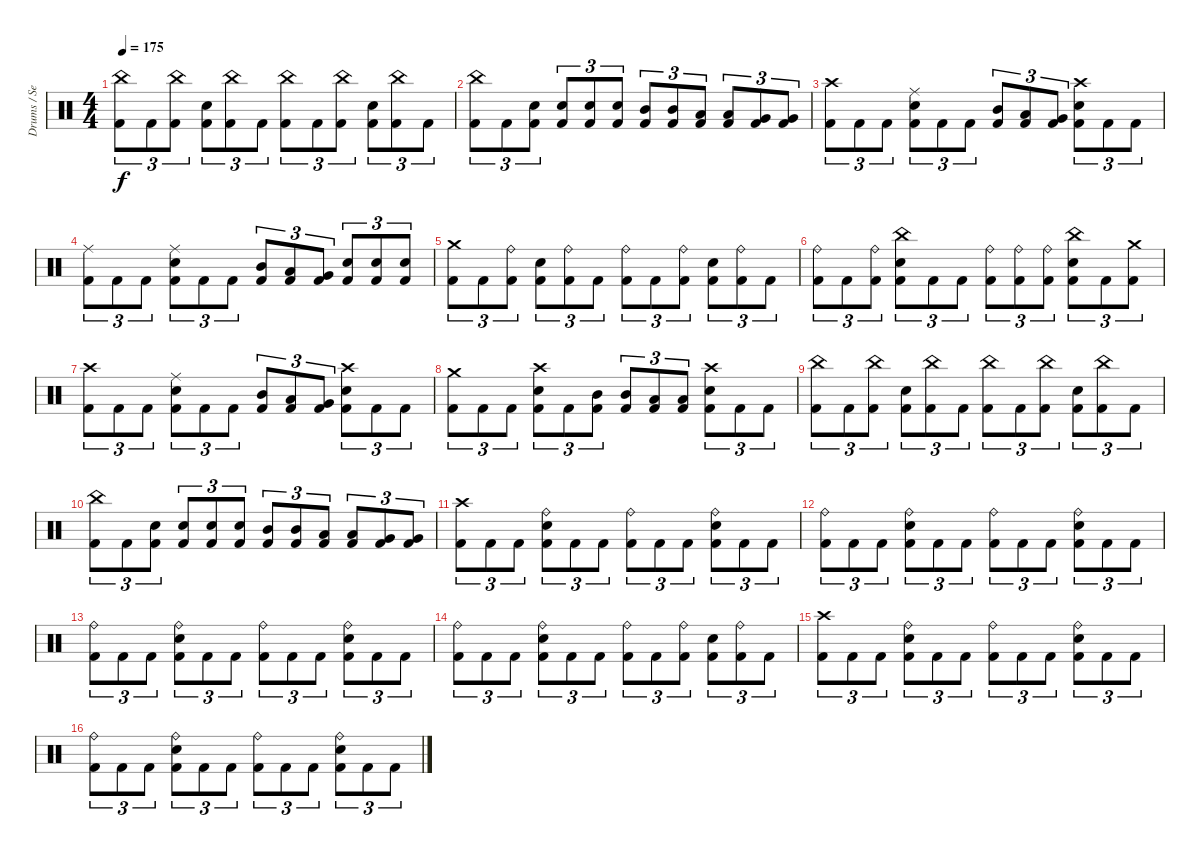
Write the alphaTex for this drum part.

\track ("Drums / Sean" "Drums / Se") {instrument percussion}
\staff {score}
\articulation defaults
\ts (4 4)
\tempo 175
\clef neutral
\ks c
("China (hit)" "Kick (hit) 2").8{tu (3 2) dy f} "Kick (hit) 2".8{tu (3 2)} ("China (hit)" "Kick (hit) 2").8{tu (3 2)} ("Electric Snare (hit)" "Kick (hit) 2").8{tu (3 2)} ("China (hit)" "Kick (hit) 2").8{tu (3 2)} "Kick (hit) 2".8{tu (3 2)} ("China (hit)" "Kick (hit) 2").8{tu (3 2)} "Kick (hit) 2".8{tu (3 2)} ("China (hit)" "Kick (hit) 2").8{tu (3 2)} ("Electric Snare (hit)" "Kick (hit) 2").8{tu (3 2)} ("China (hit)" "Kick (hit) 2").8{tu (3 2)} "Kick (hit) 2".8{tu (3 2)} |
("China (hit)" "Kick (hit) 2").8{tu (3 2)} "Kick (hit) 2".8{tu (3 2)} ("Electric Snare (hit)" "Kick (hit) 2").8{tu (3 2)} ("Electric Snare (hit)" "Kick (hit) 2").8{tu (3 2)} ("Electric Snare (hit)" "Kick (hit) 2").8{tu (3 2)} ("Electric Snare (hit)" "Kick (hit) 2").8{tu (3 2)} ("Mid Tom (hit)" "Kick (hit) 2").8{tu (3 2)} ("Mid Tom (hit)" "Kick (hit) 2").8{tu (3 2)} ("Low Tom (hit)" "Kick (hit) 2").8{tu (3 2)} ("Low Tom (hit)" "Kick (hit) 2").8{tu (3 2)} ("Very Low Tom (hit)" "Kick (hit) 2").8{tu (3 2)} ("Very Low Tom (hit)" "Kick (hit) 2").8{tu (3 2)} |
("Crash high (hit)" "Kick (hit) 2").8{tu (3 2)} "Kick (hit) 2".8{tu (3 2)} "Kick (hit) 2".8{tu (3 2)} ("Ride (middle)" "Electric Snare (hit)" "Kick (hit) 2").8{tu (3 2)} "Kick (hit) 2".8{tu (3 2)} "Kick (hit) 2".8{tu (3 2)} ("Mid Tom (hit)" "Kick (hit) 2").8{tu (3 2)} ("Low Tom (hit)" "Kick (hit) 2").8{tu (3 2)} ("Very Low Tom (hit)" "Kick (hit) 2").8{tu (3 2)} ("Crash high (hit)" "Electric Snare (hit)" "Kick (hit) 2").8{tu (3 2)} "Kick (hit) 2".8{tu (3 2)} "Kick (hit) 2".8{tu (3 2)} |
("Ride (middle)" "Kick (hit) 2").8{tu (3 2)} "Kick (hit) 2".8{tu (3 2)} "Kick (hit) 2".8{tu (3 2)} ("Ride (middle)" "Electric Snare (hit)" "Kick (hit) 2").8{tu (3 2)} "Kick (hit) 2".8{tu (3 2)} "Kick (hit) 2".8{tu (3 2)} ("Mid Tom (hit)" "Kick (hit) 2").8{tu (3 2)} ("Low Tom (hit)" "Kick (hit) 2").8{tu (3 2)} ("Very Low Tom (hit)" "Kick (hit) 2").8{tu (3 2)} ("Electric Snare (hit)" "Kick (hit) 2").8{tu (3 2)} ("Electric Snare (hit)" "Kick (hit) 2").8{tu (3 2)} ("Electric Snare (hit)" "Kick (hit) 2").8{tu (3 2)} |
("Crash medium (hit)" "Kick (hit) 2").8{tu (3 2)} "Kick (hit) 2".8{tu (3 2)} ("Ride (bell)" "Kick (hit) 2").8{tu (3 2)} ("Electric Snare (hit)" "Kick (hit) 2").8{tu (3 2)} ("Ride (bell)" "Kick (hit) 2").8{tu (3 2)} "Kick (hit) 2".8{tu (3 2)} ("Ride (bell)" "Kick (hit) 2").8{tu (3 2)} "Kick (hit) 2".8{tu (3 2)} ("Ride (bell)" "Kick (hit) 2").8{tu (3 2)} ("Electric Snare (hit)" "Kick (hit) 2").8{tu (3 2)} ("Ride (bell)" "Kick (hit) 2").8{tu (3 2)} "Kick (hit) 2".8{tu (3 2)} |
("Ride (bell)" "Kick (hit) 2").8{tu (3 2)} "Kick (hit) 2".8{tu (3 2)} ("Ride (bell)" "Kick (hit) 2").8{tu (3 2)} ("China (hit)" "Electric Snare (hit)" "Kick (hit) 2").8{tu (3 2)} "Kick (hit) 2".8{tu (3 2)} "Kick (hit) 2".8{tu (3 2)} ("Ride (bell)" "Kick (hit) 2").8{tu (3 2)} ("Ride (bell)" "Kick (hit) 2").8{tu (3 2)} ("Ride (bell)" "Kick (hit) 2").8{tu (3 2)} ("China (hit)" "Electric Snare (hit)" "Kick (hit) 2").8{tu (3 2)} "Kick (hit) 2".8{tu (3 2)} ("Crash medium (hit)" "Kick (hit) 2").8{tu (3 2)} |
("Crash high (hit)" "Kick (hit) 2").8{tu (3 2)} "Kick (hit) 2".8{tu (3 2)} "Kick (hit) 2".8{tu (3 2)} ("Ride (middle)" "Electric Snare (hit)" "Kick (hit) 2").8{tu (3 2)} "Kick (hit) 2".8{tu (3 2)} "Kick (hit) 2".8{tu (3 2)} ("Mid Tom (hit)" "Kick (hit) 2").8{tu (3 2)} ("Low Tom (hit)" "Kick (hit) 2").8{tu (3 2)} ("Very Low Tom (hit)" "Kick (hit) 2").8{tu (3 2)} ("Crash high (hit)" "Electric Snare (hit)" "Kick (hit) 2").8{tu (3 2)} "Kick (hit) 2".8{tu (3 2)} "Kick (hit) 2".8{tu (3 2)} |
("Crash medium (hit)" "Kick (hit) 2").8{tu (3 2)} "Kick (hit) 2".8{tu (3 2)} "Kick (hit) 2".8{tu (3 2)} ("Crash high (hit)" "Electric Snare (hit)" "Kick (hit) 2").8{tu (3 2)} "Kick (hit) 2".8{tu (3 2)} ("Mid Tom (hit)" "Kick (hit) 2").8{tu (3 2)} ("Mid Tom (hit)" "Kick (hit) 2").8{tu (3 2)} ("Low Tom (hit)" "Kick (hit) 2").8{tu (3 2)} ("Low Tom (hit)" "Kick (hit) 2").8{tu (3 2)} ("Crash high (hit)" "Electric Snare (hit)" "Kick (hit) 2").8{tu (3 2)} "Kick (hit) 2".8{tu (3 2)} "Kick (hit) 2".8{tu (3 2)} |
("China (hit)" "Kick (hit) 2").8{tu (3 2)} "Kick (hit) 2".8{tu (3 2)} ("China (hit)" "Kick (hit) 2").8{tu (3 2)} ("Electric Snare (hit)" "Kick (hit) 2").8{tu (3 2)} ("China (hit)" "Kick (hit) 2").8{tu (3 2)} "Kick (hit) 2".8{tu (3 2)} ("China (hit)" "Kick (hit) 2").8{tu (3 2)} "Kick (hit) 2".8{tu (3 2)} ("China (hit)" "Kick (hit) 2").8{tu (3 2)} ("Electric Snare (hit)" "Kick (hit) 2").8{tu (3 2)} ("China (hit)" "Kick (hit) 2").8{tu (3 2)} "Kick (hit) 2".8{tu (3 2)} |
("China (hit)" "Kick (hit) 2").8{tu (3 2)} "Kick (hit) 2".8{tu (3 2)} ("Electric Snare (hit)" "Kick (hit) 2").8{tu (3 2)} ("Electric Snare (hit)" "Kick (hit) 2").8{tu (3 2)} ("Electric Snare (hit)" "Kick (hit) 2").8{tu (3 2)} ("Electric Snare (hit)" "Kick (hit) 2").8{tu (3 2)} ("Mid Tom (hit)" "Kick (hit) 2").8{tu (3 2)} ("Mid Tom (hit)" "Kick (hit) 2").8{tu (3 2)} ("Low Tom (hit)" "Kick (hit) 2").8{tu (3 2)} ("Low Tom (hit)" "Kick (hit) 2").8{tu (3 2)} ("Very Low Tom (hit)" "Kick (hit) 2").8{tu (3 2)} ("Very Low Tom (hit)" "Kick (hit) 2").8{tu (3 2)} |
\section ("" "")
("Crash high (hit)" "Kick (hit) 2").8{tu (3 2) volume 13} "Kick (hit) 2".8{tu (3 2)} "Kick (hit) 2".8{tu (3 2)} ("Ride (bell)" "Electric Snare (hit)" "Kick (hit) 2").8{tu (3 2)} "Kick (hit) 2".8{tu (3 2)} "Kick (hit) 2".8{tu (3 2)} ("Ride (bell)" "Kick (hit) 2").8{tu (3 2)} "Kick (hit) 2".8{tu (3 2)} "Kick (hit) 2".8{tu (3 2)} ("Ride (bell)" "Electric Snare (hit)" "Kick (hit) 2").8{tu (3 2)} "Kick (hit) 2".8{tu (3 2)} "Kick (hit) 2".8{tu (3 2)} |
("Ride (bell)" "Kick (hit) 2").8{tu (3 2)} "Kick (hit) 2".8{tu (3 2)} "Kick (hit) 2".8{tu (3 2)} ("Ride (bell)" "Electric Snare (hit)" "Kick (hit) 2").8{tu (3 2)} "Kick (hit) 2".8{tu (3 2)} "Kick (hit) 2".8{tu (3 2)} ("Ride (bell)" "Kick (hit) 2").8{tu (3 2)} "Kick (hit) 2".8{tu (3 2)} "Kick (hit) 2".8{tu (3 2)} ("Ride (bell)" "Electric Snare (hit)" "Kick (hit) 2").8{tu (3 2)} "Kick (hit) 2".8{tu (3 2)} "Kick (hit) 2".8{tu (3 2)} |
("Ride (bell)" "Kick (hit) 2").8{tu (3 2) volume 10} "Kick (hit) 2".8{tu (3 2)} "Kick (hit) 2".8{tu (3 2)} ("Ride (bell)" "Electric Snare (hit)" "Kick (hit) 2").8{tu (3 2)} "Kick (hit) 2".8{tu (3 2)} "Kick (hit) 2".8{tu (3 2)} ("Ride (bell)" "Kick (hit) 2").8{tu (3 2)} "Kick (hit) 2".8{tu (3 2)} "Kick (hit) 2".8{tu (3 2)} ("Ride (bell)" "Electric Snare (hit)" "Kick (hit) 2").8{tu (3 2)} "Kick (hit) 2".8{tu (3 2)} "Kick (hit) 2".8{tu (3 2)} |
("Ride (bell)" "Kick (hit) 2").8{tu (3 2)} "Kick (hit) 2".8{tu (3 2)} "Kick (hit) 2".8{tu (3 2)} ("Ride (bell)" "Electric Snare (hit)" "Kick (hit) 2").8{tu (3 2)} "Kick (hit) 2".8{tu (3 2)} "Kick (hit) 2".8{tu (3 2)} ("Ride (bell)" "Kick (hit) 2").8{tu (3 2)} "Kick (hit) 2".8{tu (3 2)} ("Ride (bell)" "Kick (hit) 2").8{tu (3 2)} ("Electric Snare (hit)" "Kick (hit) 2").8{tu (3 2)} ("Ride (bell)" "Kick (hit) 2").8{tu (3 2)} "Kick (hit) 2".8{tu (3 2)} |
("Crash high (hit)" "Kick (hit) 2").8{tu (3 2) volume 8} "Kick (hit) 2".8{tu (3 2)} "Kick (hit) 2".8{tu (3 2)} ("Ride (bell)" "Electric Snare (hit)" "Kick (hit) 2").8{tu (3 2)} "Kick (hit) 2".8{tu (3 2)} "Kick (hit) 2".8{tu (3 2)} ("Ride (bell)" "Kick (hit) 2").8{tu (3 2)} "Kick (hit) 2".8{tu (3 2)} "Kick (hit) 2".8{tu (3 2)} ("Ride (bell)" "Electric Snare (hit)" "Kick (hit) 2").8{tu (3 2)} "Kick (hit) 2".8{tu (3 2)} "Kick (hit) 2".8{tu (3 2)} |
("Ride (bell)" "Kick (hit) 2").8{tu (3 2)} "Kick (hit) 2".8{tu (3 2)} "Kick (hit) 2".8{tu (3 2)} ("Ride (bell)" "Electric Snare (hit)" "Kick (hit) 2").8{tu (3 2)} "Kick (hit) 2".8{tu (3 2)} "Kick (hit) 2".8{tu (3 2)} ("Ride (bell)" "Kick (hit) 2").8{tu (3 2)} "Kick (hit) 2".8{tu (3 2)} "Kick (hit) 2".8{tu (3 2)} ("Ride (bell)" "Electric Snare (hit)" "Kick (hit) 2").8{tu (3 2)} "Kick (hit) 2".8{tu (3 2)} "Kick (hit) 2".8{tu (3 2)}
